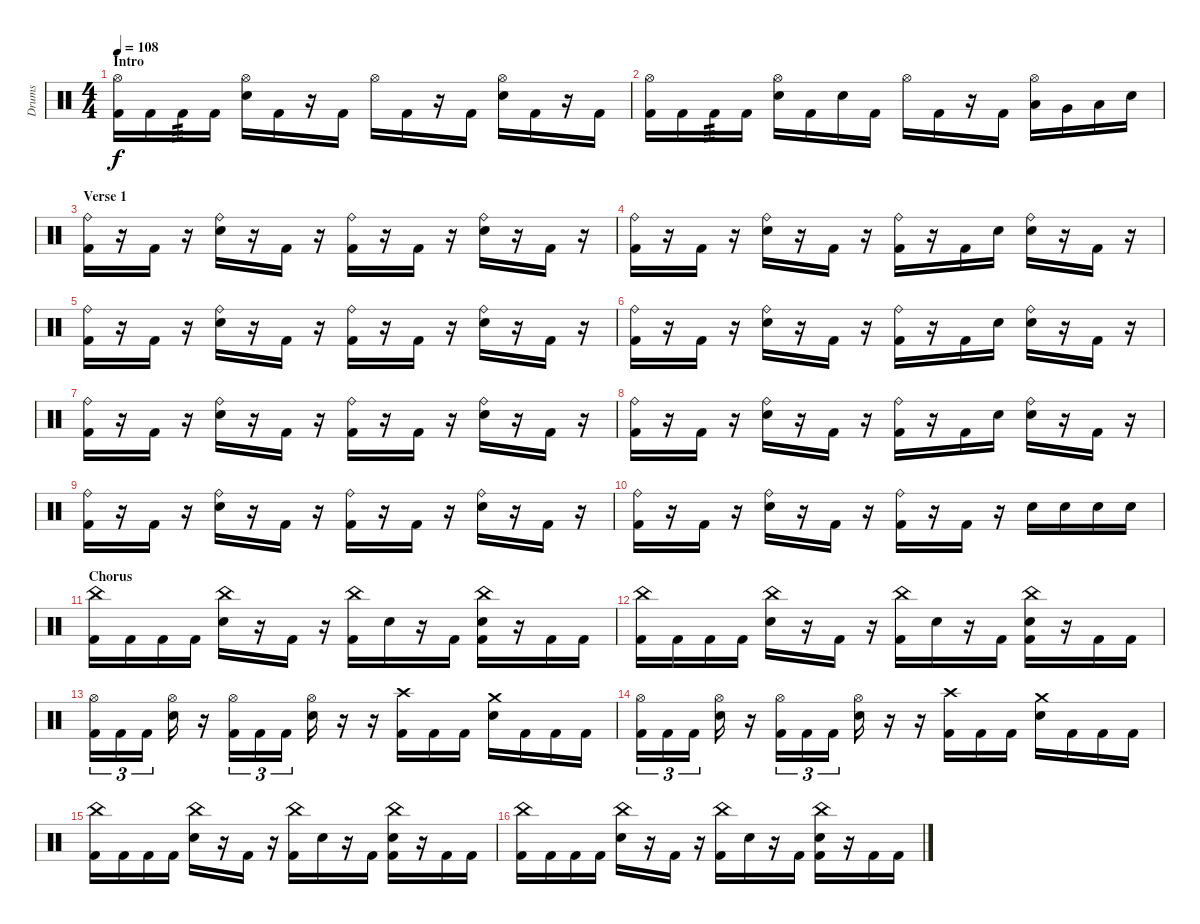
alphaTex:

\track ("Drums" "Drums") {instrument percussion}
\staff {score}
\articulation defaults
\ts (4 4)
\section ("" "Intro")
\tempo 108
\clef neutral
\ks c
("Hi-Hat (open)" "Kick (hit) 2").16{dy f} "Kick (hit) 2".16 "Kick (hit) 2".16{tp 3} "Kick (hit) 2".16 ("Hi-Hat (open)" "Electric Snare (hit)").16 "Kick (hit) 2".16 r.16 "Kick (hit) 2".16 "Hi-Hat (open)".16 "Kick (hit) 2".16 r.16 "Kick (hit) 2".16 ("Hi-Hat (open)" "Electric Snare (hit)").16 "Kick (hit) 2".16 r.16 "Kick (hit) 2".16 |
("Hi-Hat (open)" "Kick (hit) 2").16 "Kick (hit) 2".16 "Kick (hit) 2".16{tp 3} "Kick (hit) 2".16 ("Hi-Hat (open)" "Electric Snare (hit)").16 "Kick (hit) 2".16 "Electric Snare (hit)".16 "Kick (hit) 2".16 "Hi-Hat (open)".16 "Kick (hit) 2".16 r.16 "Kick (hit) 2".16 ("Hi-Hat (open)" "Low Tom (hit)").16 "Very Low Tom (hit)".16 "Low Floor Tom (hit)".16 "Electric Snare (hit)".16 |
\section ("" "Verse 1")
("Ride (bell)" "Kick (hit) 2").16 r.16 "Kick (hit) 2".16 r.16 ("Ride (bell)" "Electric Snare (hit)").16 r.16 "Kick (hit) 2".16 r.16 ("Ride (bell)" "Kick (hit) 2").16 r.16 "Kick (hit) 2".16 r.16 ("Ride (bell)" "Electric Snare (hit)").16 r.16 "Kick (hit) 2".16 r.16 |
("Ride (bell)" "Kick (hit) 2").16 r.16 "Kick (hit) 2".16 r.16 ("Ride (bell)" "Electric Snare (hit)").16 r.16 "Kick (hit) 2".16 r.16 ("Ride (bell)" "Kick (hit) 2").16 r.16 "Kick (hit) 2".16 "Electric Snare (hit)".16 ("Ride (bell)" "Electric Snare (hit)").16 r.16 "Kick (hit) 2".16 r.16 |
("Ride (bell)" "Kick (hit) 2").16 r.16 "Kick (hit) 2".16 r.16 ("Ride (bell)" "Electric Snare (hit)").16 r.16 "Kick (hit) 2".16 r.16 ("Ride (bell)" "Kick (hit) 2").16 r.16 "Kick (hit) 2".16 r.16 ("Ride (bell)" "Electric Snare (hit)").16 r.16 "Kick (hit) 2".16 r.16 |
("Ride (bell)" "Kick (hit) 2").16 r.16 "Kick (hit) 2".16 r.16 ("Ride (bell)" "Electric Snare (hit)").16 r.16 "Kick (hit) 2".16 r.16 ("Ride (bell)" "Kick (hit) 2").16 r.16 "Kick (hit) 2".16 "Electric Snare (hit)".16 ("Ride (bell)" "Electric Snare (hit)").16 r.16 "Kick (hit) 2".16 r.16 |
("Ride (bell)" "Kick (hit) 2").16 r.16 "Kick (hit) 2".16 r.16 ("Ride (bell)" "Electric Snare (hit)").16 r.16 "Kick (hit) 2".16 r.16 ("Ride (bell)" "Kick (hit) 2").16 r.16 "Kick (hit) 2".16 r.16 ("Ride (bell)" "Electric Snare (hit)").16 r.16 "Kick (hit) 2".16 r.16 |
("Ride (bell)" "Kick (hit) 2").16 r.16 "Kick (hit) 2".16 r.16 ("Ride (bell)" "Electric Snare (hit)").16 r.16 "Kick (hit) 2".16 r.16 ("Ride (bell)" "Kick (hit) 2").16 r.16 "Kick (hit) 2".16 "Electric Snare (hit)".16 ("Ride (bell)" "Electric Snare (hit)").16 r.16 "Kick (hit) 2".16 r.16 |
("Ride (bell)" "Kick (hit) 2").16 r.16 "Kick (hit) 2".16 r.16 ("Ride (bell)" "Electric Snare (hit)").16 r.16 "Kick (hit) 2".16 r.16 ("Ride (bell)" "Kick (hit) 2").16 r.16 "Kick (hit) 2".16 r.16 ("Ride (bell)" "Electric Snare (hit)").16 r.16 "Kick (hit) 2".16 r.16 |
("Ride (bell)" "Kick (hit) 2").16 r.16 "Kick (hit) 2".16 r.16 ("Ride (bell)" "Electric Snare (hit)").16 r.16 "Kick (hit) 2".16 r.16 ("Ride (bell)" "Kick (hit) 2").16 r.16 "Kick (hit) 2".16 r.16 "Electric Snare (hit)".16 "Electric Snare (hit)".16 "Electric Snare (hit)".16 "Electric Snare (hit)".16 |
\section ("" "Chorus")
("China (hit)" "Kick (hit) 2").16 "Kick (hit) 2".16 "Kick (hit) 2".16 "Kick (hit) 2".16 ("China (hit)" "Electric Snare (hit)").16 r.16 "Kick (hit) 2".16 r.16 ("China (hit)" "Kick (hit) 2").16 "Electric Snare (hit)".16 r.16 "Kick (hit) 2".16 ("China (hit)" "Electric Snare (hit)" "Kick (hit) 2").16 r.16 "Kick (hit) 2".16 "Kick (hit) 2".16 |
("China (hit)" "Kick (hit) 2").16 "Kick (hit) 2".16 "Kick (hit) 2".16 "Kick (hit) 2".16 ("China (hit)" "Electric Snare (hit)").16 r.16 "Kick (hit) 2".16 r.16 ("China (hit)" "Kick (hit) 2").16 "Electric Snare (hit)".16 r.16 "Kick (hit) 2".16 ("China (hit)" "Electric Snare (hit)" "Kick (hit) 2").16 r.16 "Kick (hit) 2".16 "Kick (hit) 2".16 |
("Hi-Hat (open)" "Kick (hit) 2").16{tu (3 2)} "Kick (hit) 2".16{tu (3 2)} "Kick (hit) 2".16{tu (3 2)} ("Hi-Hat (open)" "Electric Snare (hit)").16 r.16 ("Hi-Hat (open)" "Kick (hit) 2").16{tu (3 2)} "Kick (hit) 2".16{tu (3 2)} "Kick (hit) 2".16{tu (3 2)} ("Hi-Hat (open)" "Electric Snare (hit)").16 r.16 r.16 ("Crash high (hit)" "Kick (hit) 2").16 "Kick (hit) 2".16 "Kick (hit) 2".16 ("Crash medium (hit)" "Electric Snare (hit)").16 "Kick (hit) 2".16 "Kick (hit) 2".16 "Kick (hit) 2".16 |
("Hi-Hat (open)" "Kick (hit) 2").16{tu (3 2)} "Kick (hit) 2".16{tu (3 2)} "Kick (hit) 2".16{tu (3 2)} ("Hi-Hat (open)" "Electric Snare (hit)").16 r.16 ("Hi-Hat (open)" "Kick (hit) 2").16{tu (3 2)} "Kick (hit) 2".16{tu (3 2)} "Kick (hit) 2".16{tu (3 2)} ("Hi-Hat (open)" "Electric Snare (hit)").16 r.16 r.16 ("Crash high (hit)" "Kick (hit) 2").16 "Kick (hit) 2".16 "Kick (hit) 2".16 ("Crash medium (hit)" "Electric Snare (hit)").16 "Kick (hit) 2".16 "Kick (hit) 2".16 "Kick (hit) 2".16 |
("China (hit)" "Kick (hit) 2").16 "Kick (hit) 2".16 "Kick (hit) 2".16 "Kick (hit) 2".16 ("China (hit)" "Electric Snare (hit)").16 r.16 "Kick (hit) 2".16 r.16 ("China (hit)" "Kick (hit) 2").16 "Electric Snare (hit)".16 r.16 "Kick (hit) 2".16 ("China (hit)" "Electric Snare (hit)" "Kick (hit) 2").16 r.16 "Kick (hit) 2".16 "Kick (hit) 2".16 |
("China (hit)" "Kick (hit) 2").16 "Kick (hit) 2".16 "Kick (hit) 2".16 "Kick (hit) 2".16 ("China (hit)" "Electric Snare (hit)").16 r.16 "Kick (hit) 2".16 r.16 ("China (hit)" "Kick (hit) 2").16 "Electric Snare (hit)".16 r.16 "Kick (hit) 2".16 ("China (hit)" "Electric Snare (hit)" "Kick (hit) 2").16 r.16 "Kick (hit) 2".16 "Kick (hit) 2".16
